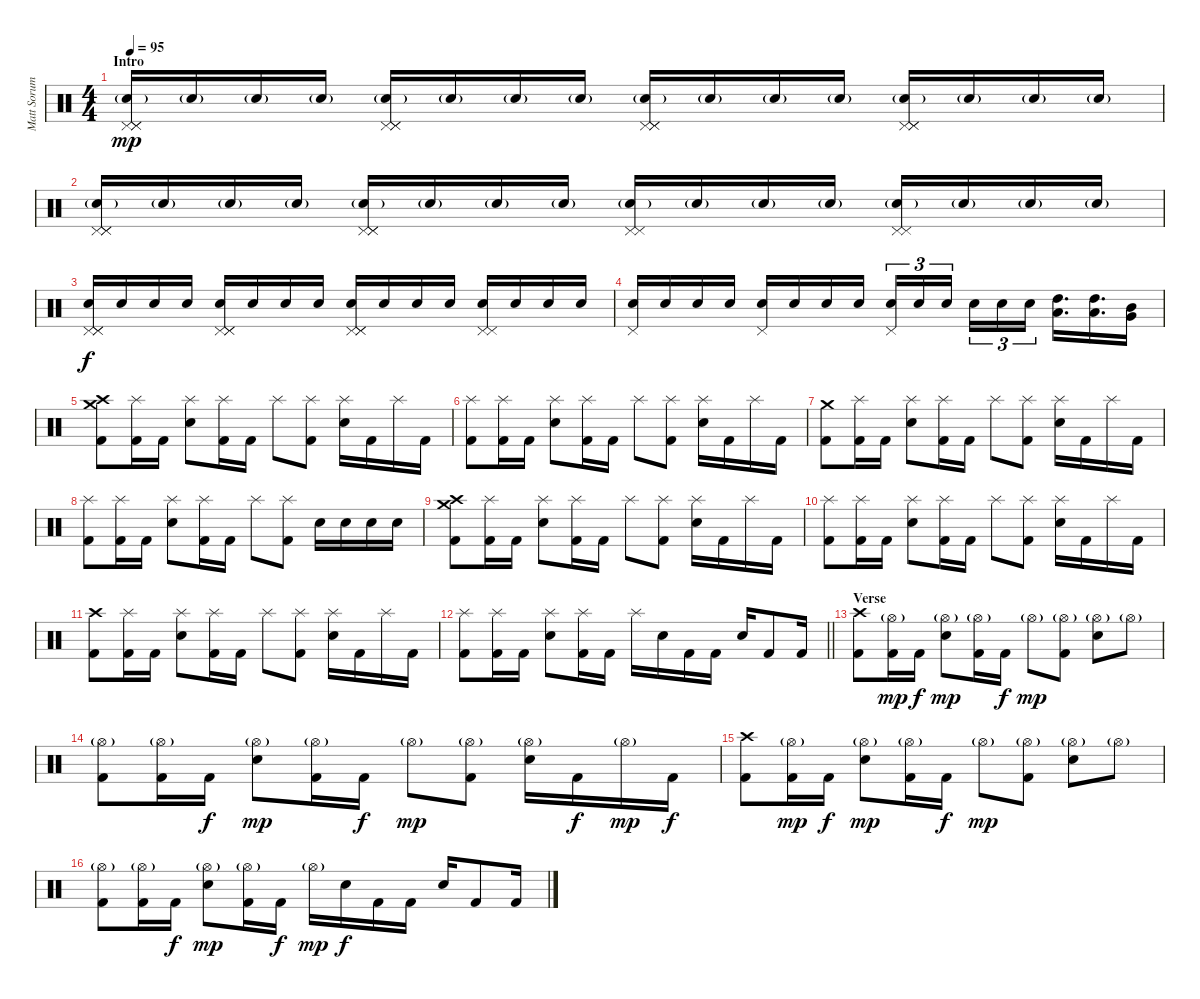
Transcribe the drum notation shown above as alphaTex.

\track ("Matt Sorum" "Matt Sorum") {instrument percussion}
\staff {score}
\articulation defaults
\ts (4 4)
\section ("" "Intro")
\tempo 95
\clef neutral
\ks c
("Pedal Hi-Hat (hit)" "Pedal Hi-Hat (hit)" "Pedal Hi-Hat (hit)" "Electric Snare (hit)"{g}).16{dy mp volume 10} "Electric Snare (hit)"{g}.16 "Electric Snare (hit)"{g}.16 "Electric Snare (hit)"{g}.16 ("Pedal Hi-Hat (hit)" "Pedal Hi-Hat (hit)" "Pedal Hi-Hat (hit)" "Electric Snare (hit)"{g}).16 "Electric Snare (hit)"{g}.16 "Electric Snare (hit)"{g}.16 "Electric Snare (hit)"{g}.16 ("Pedal Hi-Hat (hit)" "Pedal Hi-Hat (hit)" "Pedal Hi-Hat (hit)" "Electric Snare (hit)"{g}).16 "Electric Snare (hit)"{g}.16 "Electric Snare (hit)"{g}.16 "Electric Snare (hit)"{g}.16 ("Pedal Hi-Hat (hit)" "Pedal Hi-Hat (hit)" "Pedal Hi-Hat (hit)" "Electric Snare (hit)"{g}).16 "Electric Snare (hit)"{g}.16 "Electric Snare (hit)"{g}.16 "Electric Snare (hit)"{g}.16 |
("Pedal Hi-Hat (hit)" "Pedal Hi-Hat (hit)" "Pedal Hi-Hat (hit)" "Electric Snare (hit)"{g}).16{volume 13} "Electric Snare (hit)"{g}.16 "Electric Snare (hit)"{g}.16 "Electric Snare (hit)"{g}.16 ("Pedal Hi-Hat (hit)" "Pedal Hi-Hat (hit)" "Pedal Hi-Hat (hit)" "Electric Snare (hit)"{g}).16 "Electric Snare (hit)"{g}.16 "Electric Snare (hit)"{g}.16 "Electric Snare (hit)"{g}.16 ("Pedal Hi-Hat (hit)" "Pedal Hi-Hat (hit)" "Electric Snare (hit)"{g}).16 "Electric Snare (hit)"{g}.16 "Electric Snare (hit)"{g}.16 "Electric Snare (hit)"{g}.16 ("Pedal Hi-Hat (hit)" "Pedal Hi-Hat (hit)" "Electric Snare (hit)"{g}).16 "Electric Snare (hit)"{g}.16 "Electric Snare (hit)"{g}.16 "Electric Snare (hit)"{g}.16 |
("Pedal Hi-Hat (hit)" "Pedal Hi-Hat (hit)" "Pedal Hi-Hat (hit)" "Electric Snare (hit)").16{dy f volume 10} "Electric Snare (hit)".16 "Electric Snare (hit)".16 "Electric Snare (hit)".16 ("Pedal Hi-Hat (hit)" "Pedal Hi-Hat (hit)" "Pedal Hi-Hat (hit)" "Electric Snare (hit)").16{volume 13} "Electric Snare (hit)".16 "Electric Snare (hit)".16 "Electric Snare (hit)".16 ("Pedal Hi-Hat (hit)" "Pedal Hi-Hat (hit)" "Pedal Hi-Hat (hit)" "Electric Snare (hit)").16 "Electric Snare (hit)".16 "Electric Snare (hit)".16 "Electric Snare (hit)".16 ("Pedal Hi-Hat (hit)" "Pedal Hi-Hat (hit)" "Electric Snare (hit)").16 "Electric Snare (hit)".16 "Electric Snare (hit)".16 "Electric Snare (hit)".16 |
("Pedal Hi-Hat (hit)" "Electric Snare (hit)").16 "Electric Snare (hit)".16 "Electric Snare (hit)".16 "Electric Snare (hit)".16 ("Pedal Hi-Hat (hit)" "Electric Snare (hit)").16 "Electric Snare (hit)".16 "Electric Snare (hit)".16 "Electric Snare (hit)".16 ("Pedal Hi-Hat (hit)" "Electric Snare (hit)").16{tu (3 2)} "Electric Snare (hit)".16{tu (3 2)} "Electric Snare (hit)".16{tu (3 2) beam splitsecondary} "Electric Snare (hit)".16{tu (3 2)} "Electric Snare (hit)".16{tu (3 2)} "Electric Snare (hit)".16{tu (3 2)} ("High Tom (hit)" "Low Tom (hit)").16{d} ("High Tom (hit)" "Low Tom (hit)").16{d} ("Mid Tom (hit)" "Very Low Tom (hit)").16 |
("Crash medium (hit)" "Crash high (hit)" "Kick (hit) 2").8 ("Splash (hit)" "Kick (hit) 2").16 "Kick (hit) 2".16 ("Splash (hit)" "Electric Snare (hit)").8 ("Splash (hit)" "Kick (hit) 2").16 "Kick (hit) 2".16 "Splash (hit)".8 ("Splash (hit)" "Kick (hit) 2").8 ("Splash (hit)" "Electric Snare (hit)").16 "Kick (hit) 2".16 "Splash (hit)".16 "Kick (hit) 2".16 |
("Splash (hit)" "Kick (hit) 2").8 ("Splash (hit)" "Kick (hit) 2").16 "Kick (hit) 2".16 ("Splash (hit)" "Electric Snare (hit)").8 ("Splash (hit)" "Kick (hit) 2").16 "Kick (hit) 2".16 "Splash (hit)".8 ("Splash (hit)" "Kick (hit) 2").8 ("Splash (hit)" "Electric Snare (hit)").16 "Kick (hit) 2".16 "Splash (hit)".16 "Kick (hit) 2".16 |
("Crash medium (hit)" "Kick (hit) 2").8 ("Splash (hit)" "Kick (hit) 2").16 "Kick (hit) 2".16 ("Splash (hit)" "Electric Snare (hit)").8 ("Splash (hit)" "Kick (hit) 2").16 "Kick (hit) 2".16 "Splash (hit)".8 ("Splash (hit)" "Kick (hit) 2").8 ("Splash (hit)" "Electric Snare (hit)").16 "Kick (hit) 2".16 "Splash (hit)".16 "Kick (hit) 2".16 |
("Splash (hit)" "Kick (hit) 2").8 ("Splash (hit)" "Kick (hit) 2").16 "Kick (hit) 2".16 ("Splash (hit)" "Electric Snare (hit)").8 ("Splash (hit)" "Kick (hit) 2").16 "Kick (hit) 2".16 "Splash (hit)".8 ("Splash (hit)" "Kick (hit) 2").8 "Electric Snare (hit)".16 "Electric Snare (hit)".16 "Electric Snare (hit)".16 "Electric Snare (hit)".16 |
("Crash medium (hit)" "Crash high (hit)" "Kick (hit) 2").8 ("Splash (hit)" "Kick (hit) 2").16 "Kick (hit) 2".16 ("Splash (hit)" "Electric Snare (hit)").8 ("Splash (hit)" "Kick (hit) 2").16 "Kick (hit) 2".16 "Splash (hit)".8 ("Splash (hit)" "Kick (hit) 2").8 ("Splash (hit)" "Electric Snare (hit)").16 "Kick (hit) 2".16 "Splash (hit)".16 "Kick (hit) 2".16 |
("Splash (hit)" "Kick (hit) 2").8 ("Splash (hit)" "Kick (hit) 2").16 "Kick (hit) 2".16 ("Splash (hit)" "Electric Snare (hit)").8 ("Splash (hit)" "Kick (hit) 2").16 "Kick (hit) 2".16 "Splash (hit)".8 ("Splash (hit)" "Kick (hit) 2").8 ("Splash (hit)" "Electric Snare (hit)").16 "Kick (hit) 2".16 "Splash (hit)".16 "Kick (hit) 2".16 |
("Crash high (hit)" "Kick (hit) 2").8 ("Splash (hit)" "Kick (hit) 2").16 "Kick (hit) 2".16 ("Splash (hit)" "Electric Snare (hit)").8 ("Splash (hit)" "Kick (hit) 2").16 "Kick (hit) 2".16 "Splash (hit)".8 ("Splash (hit)" "Kick (hit) 2").8 ("Splash (hit)" "Electric Snare (hit)").16 "Kick (hit) 2".16 "Splash (hit)".16 "Kick (hit) 2".16 |
\barLineRight lightlight
("Splash (hit)" "Kick (hit) 2").8 ("Splash (hit)" "Kick (hit) 2").16 "Kick (hit) 2".16 ("Splash (hit)" "Electric Snare (hit)").8 ("Splash (hit)" "Kick (hit) 2").16 "Kick (hit) 2".16 "Splash (hit)".16 "Electric Snare (hit)".16 "Kick (hit) 2".16 "Kick (hit) 2".16 "Electric Snare (hit)".16 "Kick (hit) 2".8 "Kick (hit) 2".16 |
\section ("" "Verse")
("Crash high (hit)" "Kick (hit) 2").8 ("Hi-Hat (open)"{g} "Kick (hit) 2").16{dy mp} "Kick (hit) 2".16{dy f} ("Hi-Hat (open)"{g} "Electric Snare (hit)").8{dy mp} ("Hi-Hat (open)"{g} "Kick (hit) 2").16 "Kick (hit) 2".16{dy f} "Hi-Hat (open)"{g}.8{dy mp} ("Hi-Hat (open)"{g} "Kick (hit) 2").8 ("Hi-Hat (open)"{g} "Electric Snare (hit)").8 "Hi-Hat (open)"{g}.8 |
("Hi-Hat (open)"{g} "Kick (hit) 2").8 ("Hi-Hat (open)"{g} "Kick (hit) 2").16 "Kick (hit) 2".16{dy f} ("Hi-Hat (open)"{g} "Electric Snare (hit)").8{dy mp} ("Hi-Hat (open)"{g} "Kick (hit) 2").16 "Kick (hit) 2".16{dy f} "Hi-Hat (open)"{g}.8{dy mp} ("Hi-Hat (open)"{g} "Kick (hit) 2").8 ("Hi-Hat (open)"{g} "Electric Snare (hit)").16 "Kick (hit) 2".16{dy f} "Hi-Hat (open)"{g}.16{dy mp} "Kick (hit) 2".16{dy f} |
("Crash high (hit)" "Kick (hit) 2").8 ("Hi-Hat (open)"{g} "Kick (hit) 2").16{dy mp} "Kick (hit) 2".16{dy f} ("Hi-Hat (open)"{g} "Electric Snare (hit)").8{dy mp} ("Hi-Hat (open)"{g} "Kick (hit) 2").16 "Kick (hit) 2".16{dy f} "Hi-Hat (open)"{g}.8{dy mp} ("Hi-Hat (open)"{g} "Kick (hit) 2").8 ("Hi-Hat (open)"{g} "Electric Snare (hit)").8 "Hi-Hat (open)"{g}.8 |
("Hi-Hat (open)"{g} "Kick (hit) 2").8 ("Hi-Hat (open)"{g} "Kick (hit) 2").16 "Kick (hit) 2".16{dy f} ("Hi-Hat (open)"{g} "Electric Snare (hit)").8{dy mp} ("Hi-Hat (open)"{g} "Kick (hit) 2").16 "Kick (hit) 2".16{dy f} "Hi-Hat (open)"{g}.16{dy mp} "Electric Snare (hit)".16{dy f} "Kick (hit) 2".16 "Kick (hit) 2".16 "Electric Snare (hit)".16 "Kick (hit) 2".8 "Kick (hit) 2".16
